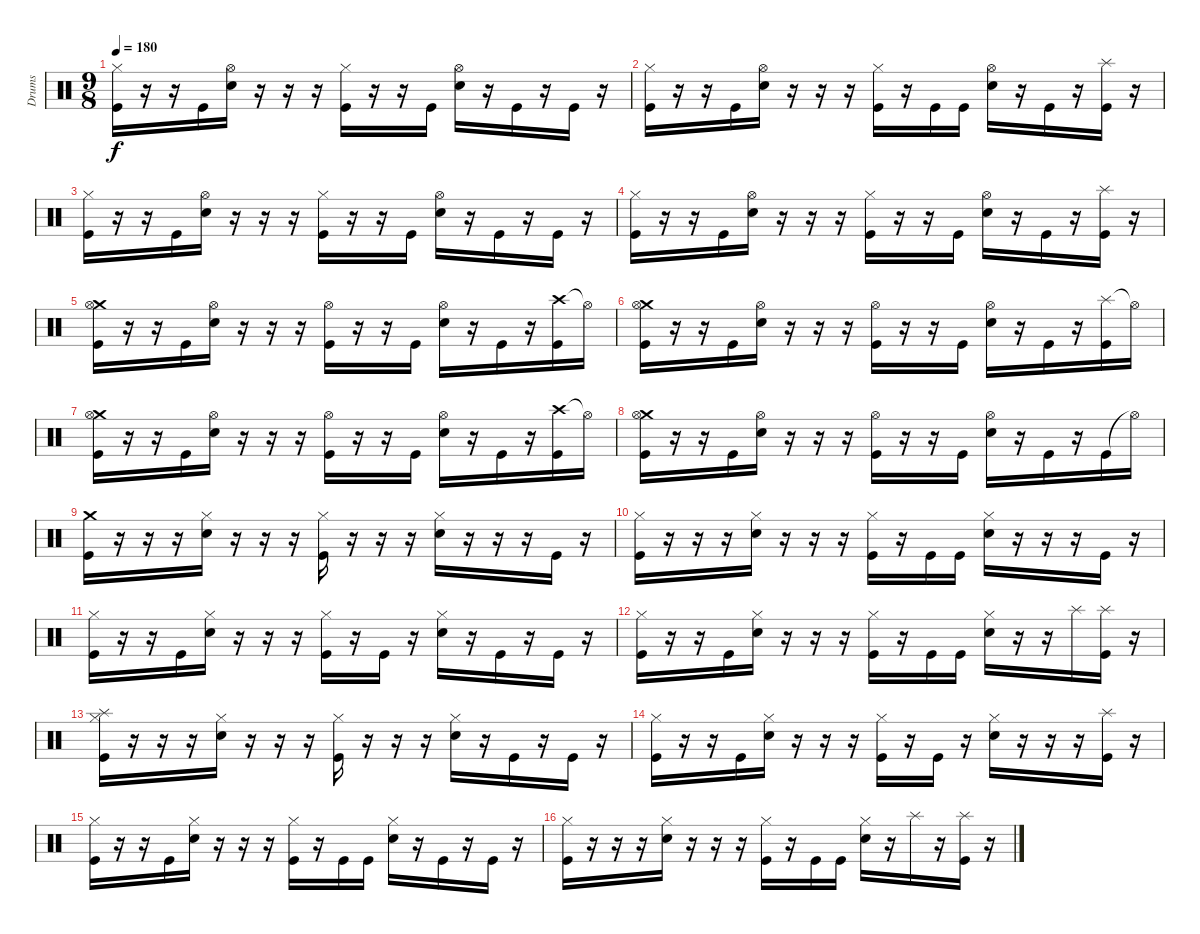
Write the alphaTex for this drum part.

\track ("Drums" "Drums") {instrument percussion}
\staff {score}
\articulation defaults
\ts (9 8)
\tempo 180
\clef neutral
\ks c
("Hi-Hat (closed)" "Kick (hit)").16{dy f} r.16 r.16 "Kick (hit)".16 ("Hi-Hat (open)" "Snare (hit) 2").16 r.16 r.16 r.16 ("Hi-Hat (closed)" "Kick (hit)").16 r.16 r.16 "Kick (hit)".16 ("Hi-Hat (open)" "Snare (hit) 2").16 r.16 "Kick (hit)".16 r.16 "Kick (hit)".16 r.16 |
("Hi-Hat (closed)" "Kick (hit)").16 r.16 r.16 "Kick (hit)".16 ("Hi-Hat (open)" "Snare (hit) 2").16 r.16 r.16 r.16 ("Hi-Hat (closed)" "Kick (hit)").16 r.16 "Kick (hit)".16 "Kick (hit)".16 ("Hi-Hat (open)" "Snare (hit) 2").16 r.16 "Kick (hit)".16 r.16 ("Splash (hit)" "Kick (hit)").16 r.16 |
("Hi-Hat (closed)" "Kick (hit)").16 r.16 r.16 "Kick (hit)".16 ("Hi-Hat (open)" "Snare (hit) 2").16 r.16 r.16 r.16 ("Hi-Hat (closed)" "Kick (hit)").16 r.16 r.16 "Kick (hit)".16 ("Hi-Hat (open)" "Snare (hit) 2").16 r.16 "Kick (hit)".16 r.16 "Kick (hit)".16 r.16 |
("Hi-Hat (closed)" "Kick (hit)").16 r.16 r.16 "Kick (hit)".16 ("Hi-Hat (open)" "Snare (hit) 2").16 r.16 r.16 r.16 ("Hi-Hat (closed)" "Kick (hit)").16 r.16 r.16 "Kick (hit)".16 ("Hi-Hat (open)" "Snare (hit) 2").16 r.16 "Kick (hit)".16 r.16 ("Splash (hit)" "Kick (hit)").16 r.16 |
("Crash medium (hit)" "Hi-Hat (open)" "Kick (hit)").16 r.16 r.16 "Kick (hit)".16 ("Hi-Hat (open)" "Snare (hit) 2").16 r.16 r.16 r.16 ("Hi-Hat (open)" "Kick (hit)").16 r.16 r.16 "Kick (hit)".16 ("Hi-Hat (open)" "Snare (hit) 2").16 r.16 "Kick (hit)".16 r.16 ("Crash high (hit)" "Kick (hit)").16 "Hi-Hat (open)"{t}.16 |
("Crash medium (hit)" "Hi-Hat (open)" "Kick (hit)").16 r.16 r.16 "Kick (hit)".16 ("Hi-Hat (open)" "Snare (hit) 2").16 r.16 r.16 r.16 ("Hi-Hat (open)" "Kick (hit)").16 r.16 r.16 "Kick (hit)".16 ("Hi-Hat (open)" "Snare (hit) 2").16 r.16 "Kick (hit)".16 r.16 ("Splash (hit)" "Kick (hit)").16 "Hi-Hat (open)"{t}.16 |
("Crash medium (hit)" "Hi-Hat (open)" "Kick (hit)").16 r.16 r.16 "Kick (hit)".16 ("Hi-Hat (open)" "Snare (hit) 2").16 r.16 r.16 r.16 ("Hi-Hat (open)" "Kick (hit)").16 r.16 r.16 "Kick (hit)".16 ("Hi-Hat (open)" "Snare (hit) 2").16 r.16 "Kick (hit)".16 r.16 ("Crash high (hit)" "Kick (hit)").16 "Hi-Hat (open)"{t}.16 |
("Crash medium (hit)" "Hi-Hat (open)" "Kick (hit)").16 r.16 r.16 "Kick (hit)".16 ("Hi-Hat (open)" "Snare (hit) 2").16 r.16 r.16 r.16 ("Hi-Hat (open)" "Kick (hit)").16 r.16 r.16 "Kick (hit)".16 ("Hi-Hat (open)" "Snare (hit) 2").16 r.16 "Kick (hit)".16 r.16 "Kick (hit)".16 "Hi-Hat (open)"{t}.16 |
("Crash medium (hit)" "Kick (hit)").16 r.16 r.16 r.16 ("Hi-Hat (closed)" "Snare (hit) 2").16 r.16 r.16 r.16 ("Hi-Hat (closed)" "Kick (hit)").16 r.16 r.16 r.16 ("Hi-Hat (closed)" "Snare (hit) 2").16 r.16 r.16 r.16 "Kick (hit)".16 r.16 |
("Hi-Hat (closed)" "Kick (hit)").16 r.16 r.16 r.16 ("Hi-Hat (closed)" "Snare (hit) 2").16 r.16 r.16 r.16 ("Hi-Hat (closed)" "Kick (hit)").16 r.16 "Kick (hit)".16 "Kick (hit)".16 ("Hi-Hat (closed)" "Snare (hit) 2").16 r.16 r.16 r.16 "Kick (hit)".16 r.16 |
("Hi-Hat (closed)" "Kick (hit)").16 r.16 r.16 "Kick (hit)".16 ("Hi-Hat (closed)" "Snare (hit) 2").16 r.16 r.16 r.16 ("Hi-Hat (closed)" "Kick (hit)").16 r.16 "Kick (hit)".16 r.16 ("Hi-Hat (closed)" "Snare (hit) 2").16 r.16 "Kick (hit)".16 r.16 "Kick (hit)".16 r.16 |
("Hi-Hat (closed)" "Kick (hit)").16 r.16 r.16 "Kick (hit)".16 ("Hi-Hat (closed)" "Snare (hit) 2").16 r.16 r.16 r.16 ("Hi-Hat (closed)" "Kick (hit)").16 r.16 "Kick (hit)".16 "Kick (hit)".16 ("Hi-Hat (closed)" "Snare (hit) 2").16 r.16 r.16 "Splash (hit)".16 ("Splash (hit)" "Kick (hit)").16 r.16 |
("Splash (hit)" "Hi-Hat (closed)" "Kick (hit)").16 r.16 r.16 r.16 ("Hi-Hat (closed)" "Snare (hit) 2").16 r.16 r.16 r.16 ("Hi-Hat (closed)" "Kick (hit)").16 r.16 r.16 r.16 ("Hi-Hat (closed)" "Snare (hit) 2").16 r.16 "Kick (hit)".16 r.16 "Kick (hit)".16 r.16 |
("Hi-Hat (closed)" "Kick (hit)").16 r.16 r.16 "Kick (hit)".16 ("Hi-Hat (closed)" "Snare (hit) 2").16 r.16 r.16 r.16 ("Hi-Hat (closed)" "Kick (hit)").16 r.16 "Kick (hit)".16 r.16 ("Hi-Hat (closed)" "Snare (hit) 2").16 r.16 r.16 r.16 ("Splash (hit)" "Kick (hit)").16 r.16 |
("Hi-Hat (closed)" "Kick (hit)").16 r.16 r.16 "Kick (hit)".16 ("Hi-Hat (closed)" "Snare (hit) 2").16 r.16 r.16 r.16 ("Hi-Hat (closed)" "Kick (hit)").16 r.16 "Kick (hit)".16 "Kick (hit)".16 ("Hi-Hat (closed)" "Snare (hit) 2").16 r.16 "Kick (hit)".16 r.16 "Kick (hit)".16 r.16 |
("Hi-Hat (closed)" "Kick (hit)").16 r.16 r.16 r.16 ("Hi-Hat (closed)" "Snare (hit) 2").16 r.16 r.16 r.16 ("Hi-Hat (closed)" "Kick (hit)").16 r.16 "Kick (hit)".16 "Kick (hit)".16 ("Hi-Hat (closed)" "Snare (hit) 2").16 r.16 "Splash (hit)".16 r.16 ("Splash (hit)" "Kick (hit)").16 r.16
